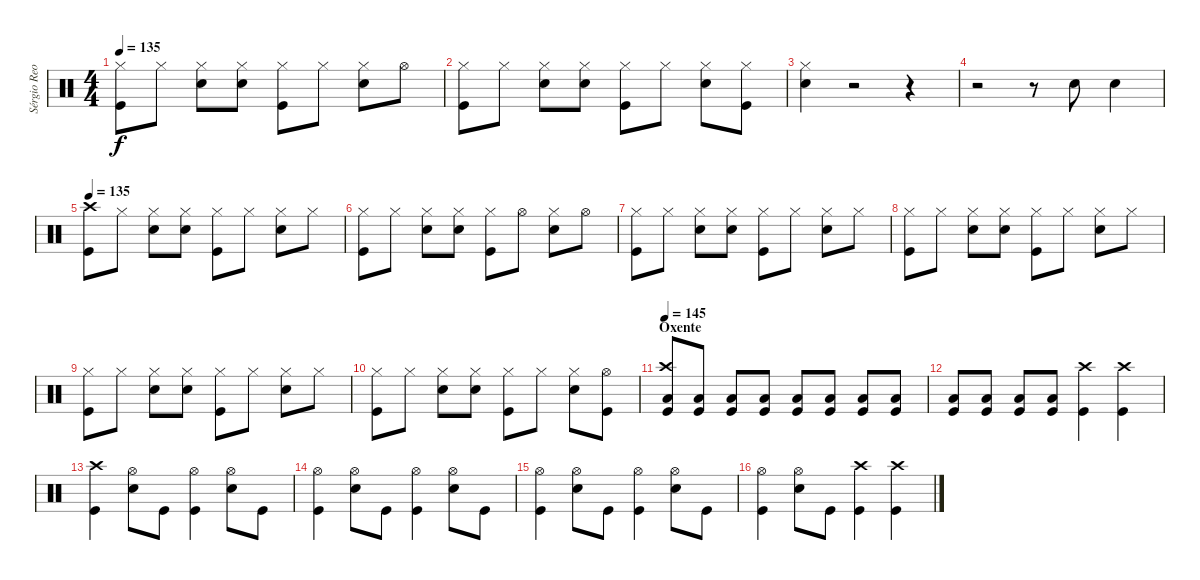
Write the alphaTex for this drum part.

\track ("Sérgio Reoli" "Sérgio Reo") {instrument percussion}
\staff {score}
\articulation defaults
\ts (4 4)
\tempo 135
\clef neutral
\ks c
("Hi-Hat (closed)" "Kick (hit)").8{dy f} "Hi-Hat (closed)".8 ("Hi-Hat (closed)" "Electric Snare (hit)").8 ("Hi-Hat (closed)" "Electric Snare (hit)").8 ("Hi-Hat (closed)" "Kick (hit)").8 "Hi-Hat (closed)".8 ("Hi-Hat (closed)" "Electric Snare (hit)").8 "Hi-Hat (open)".8 |
("Hi-Hat (closed)" "Kick (hit)").8 "Hi-Hat (closed)".8 ("Hi-Hat (closed)" "Electric Snare (hit)").8 ("Hi-Hat (closed)" "Electric Snare (hit)").8 ("Hi-Hat (closed)" "Kick (hit)").8 "Hi-Hat (closed)".8 ("Hi-Hat (closed)" "Electric Snare (hit)").8 ("Hi-Hat (closed)" "Kick (hit)").8 |
("Hi-Hat (closed)" "Electric Snare (hit)").4 r.2 r.4 |
r.2 r.8 "Electric Snare (hit)".8 "Electric Snare (hit)".4 |
\tempo 135
("Crash high (hit)" "Kick (hit)").8 "Hi-Hat (closed)".8 ("Hi-Hat (closed)" "Electric Snare (hit)").8 ("Hi-Hat (closed)" "Electric Snare (hit)").8 ("Hi-Hat (closed)" "Kick (hit)").8 "Hi-Hat (closed)".8 ("Hi-Hat (closed)" "Electric Snare (hit)").8 "Hi-Hat (closed)".8 |
("Hi-Hat (closed)" "Kick (hit)").8 "Hi-Hat (closed)".8 ("Hi-Hat (closed)" "Electric Snare (hit)").8 ("Hi-Hat (closed)" "Electric Snare (hit)").8 ("Hi-Hat (closed)" "Kick (hit)").8 "Hi-Hat (open)".8 ("Hi-Hat (closed)" "Electric Snare (hit)").8 "Hi-Hat (open)".8 |
("Hi-Hat (closed)" "Kick (hit)").8 "Hi-Hat (closed)".8 ("Hi-Hat (closed)" "Electric Snare (hit)").8 ("Hi-Hat (closed)" "Electric Snare (hit)").8 ("Hi-Hat (closed)" "Kick (hit)").8 "Hi-Hat (closed)".8 ("Hi-Hat (closed)" "Electric Snare (hit)").8 "Hi-Hat (closed)".8 |
("Hi-Hat (closed)" "Kick (hit)").8 "Hi-Hat (closed)".8 ("Hi-Hat (closed)" "Electric Snare (hit)").8 ("Hi-Hat (closed)" "Electric Snare (hit)").8 ("Hi-Hat (closed)" "Kick (hit)").8 "Hi-Hat (closed)".8 ("Hi-Hat (closed)" "Electric Snare (hit)").8 "Hi-Hat (closed)".8 |
("Hi-Hat (closed)" "Kick (hit)").8 "Hi-Hat (closed)".8 ("Hi-Hat (closed)" "Electric Snare (hit)").8 ("Hi-Hat (closed)" "Electric Snare (hit)").8 ("Hi-Hat (closed)" "Kick (hit)").8 "Hi-Hat (closed)".8 ("Hi-Hat (closed)" "Electric Snare (hit)").8 "Hi-Hat (closed)".8 |
("Hi-Hat (closed)" "Kick (hit)").8 "Hi-Hat (closed)".8 ("Hi-Hat (closed)" "Electric Snare (hit)").8 ("Hi-Hat (closed)" "Electric Snare (hit)").8 ("Hi-Hat (closed)" "Kick (hit)").8 "Hi-Hat (closed)".8 ("Hi-Hat (closed)" "Electric Snare (hit)").8 ("Hi-Hat (open)" "Kick (hit)").8 |
\section ("" "Oxente")
\tempo 145
("Crash high (hit)" "Low Tom (hit)" "Kick (hit)").8 ("Low Tom (hit)" "Kick (hit)").8 ("Low Tom (hit)" "Kick (hit)").8 ("Low Tom (hit)" "Kick (hit)").8 ("Low Tom (hit)" "Kick (hit)").8 ("Low Tom (hit)" "Kick (hit)").8 ("Low Tom (hit)" "Kick (hit)").8 ("Low Tom (hit)" "Kick (hit)").8 |
("Low Tom (hit)" "Kick (hit)").8 ("Low Tom (hit)" "Kick (hit)").8 ("Low Tom (hit)" "Kick (hit)").8 ("Low Tom (hit)" "Kick (hit)").8 ("Crash high (hit)" "Kick (hit)").4 ("Crash high (hit)" "Kick (hit)").4 |
("Crash high (hit)" "Kick (hit)").4 ("Hi-Hat (open)" "Electric Snare (hit)").8 "Kick (hit)".8 ("Hi-Hat (open)" "Kick (hit)").4 ("Hi-Hat (open)" "Electric Snare (hit)").8 "Kick (hit)".8 |
("Hi-Hat (open)" "Kick (hit)").4 ("Hi-Hat (open)" "Electric Snare (hit)").8 "Kick (hit)".8 ("Hi-Hat (open)" "Kick (hit)").4 ("Hi-Hat (open)" "Electric Snare (hit)").8 "Kick (hit)".8 |
("Hi-Hat (open)" "Kick (hit)").4 ("Hi-Hat (open)" "Electric Snare (hit)").8 "Kick (hit)".8 ("Hi-Hat (open)" "Kick (hit)").4 ("Hi-Hat (open)" "Electric Snare (hit)").8 "Kick (hit)".8 |
("Hi-Hat (open)" "Kick (hit)").4 ("Hi-Hat (open)" "Electric Snare (hit)").8 "Kick (hit)".8 ("Crash high (hit)" "Kick (hit)").4 ("Crash high (hit)" "Kick (hit)").4
